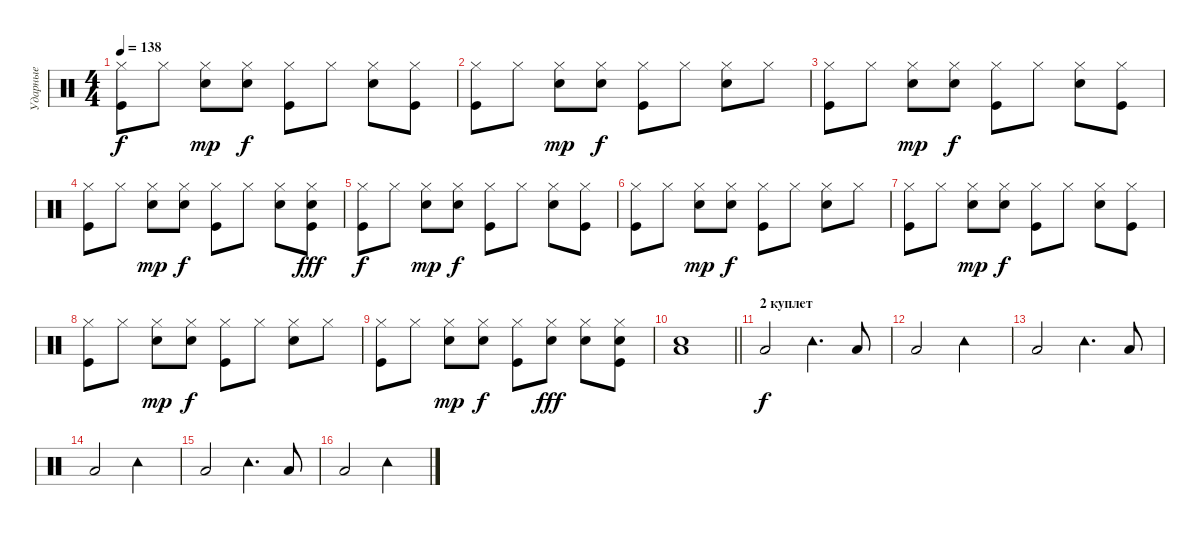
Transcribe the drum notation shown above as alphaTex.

\track ("Ударные" "Ударные") {instrument percussion}
\staff {score}
\articulation defaults
\ts (4 4)
\tempo 138
\clef neutral
\ks c
("Hi-Hat (closed)" "Kick (hit)").8{dy f} "Hi-Hat (closed)".8 ("Hi-Hat (closed)" "Snare (hit) 2").8{dy mp} ("Hi-Hat (closed)" "Snare (hit) 2").8{dy f} ("Hi-Hat (closed)" "Kick (hit)").8 "Hi-Hat (closed)".8 ("Hi-Hat (closed)" "Snare (hit) 2").8 ("Hi-Hat (closed)" "Kick (hit)").8 |
("Hi-Hat (closed)" "Kick (hit)").8 "Hi-Hat (closed)".8 ("Hi-Hat (closed)" "Snare (hit) 2").8{dy mp} ("Hi-Hat (closed)" "Snare (hit) 2").8{dy f} ("Hi-Hat (closed)" "Kick (hit)").8 "Hi-Hat (closed)".8 ("Hi-Hat (closed)" "Snare (hit) 2").8 "Hi-Hat (closed)".8 |
("Hi-Hat (closed)" "Kick (hit)").8 "Hi-Hat (closed)".8 ("Hi-Hat (closed)" "Snare (hit) 2").8{dy mp} ("Hi-Hat (closed)" "Snare (hit) 2").8{dy f} ("Hi-Hat (closed)" "Kick (hit)").8 "Hi-Hat (closed)".8 ("Hi-Hat (closed)" "Snare (hit) 2").8 ("Hi-Hat (closed)" "Kick (hit)").8 |
("Hi-Hat (closed)" "Kick (hit)").8 "Hi-Hat (closed)".8 ("Hi-Hat (closed)" "Snare (hit) 2").8{dy mp} ("Hi-Hat (closed)" "Snare (hit) 2").8{dy f} ("Hi-Hat (closed)" "Kick (hit)").8 "Hi-Hat (closed)".8 ("Hi-Hat (closed)" "Snare (hit) 2").8 ("Hi-Hat (closed)" "Kick (hit)" "Snare (hit) 2").8{dy fff} |
("Hi-Hat (closed)" "Kick (hit)").8{dy f} "Hi-Hat (closed)".8 ("Hi-Hat (closed)" "Snare (hit) 2").8{dy mp} ("Hi-Hat (closed)" "Snare (hit) 2").8{dy f} ("Hi-Hat (closed)" "Kick (hit)").8 "Hi-Hat (closed)".8 ("Hi-Hat (closed)" "Snare (hit) 2").8 ("Hi-Hat (closed)" "Kick (hit)").8 |
("Hi-Hat (closed)" "Kick (hit)").8 "Hi-Hat (closed)".8 ("Hi-Hat (closed)" "Snare (hit) 2").8{dy mp} ("Hi-Hat (closed)" "Snare (hit) 2").8{dy f} ("Hi-Hat (closed)" "Kick (hit)").8 "Hi-Hat (closed)".8 ("Hi-Hat (closed)" "Snare (hit) 2").8 "Hi-Hat (closed)".8 |
("Hi-Hat (closed)" "Kick (hit)").8 "Hi-Hat (closed)".8 ("Hi-Hat (closed)" "Snare (hit) 2").8{dy mp} ("Hi-Hat (closed)" "Snare (hit) 2").8{dy f} ("Hi-Hat (closed)" "Kick (hit)").8 "Hi-Hat (closed)".8 ("Hi-Hat (closed)" "Snare (hit) 2").8 ("Hi-Hat (closed)" "Kick (hit)").8 |
("Hi-Hat (closed)" "Kick (hit)").8 "Hi-Hat (closed)".8 ("Hi-Hat (closed)" "Snare (hit) 2").8{dy mp} ("Hi-Hat (closed)" "Snare (hit) 2").8{dy f} ("Hi-Hat (closed)" "Kick (hit)").8 "Hi-Hat (closed)".8 ("Hi-Hat (closed)" "Snare (hit) 2").8 "Hi-Hat (closed)".8 |
("Hi-Hat (closed)" "Kick (hit)").8 "Hi-Hat (closed)".8 ("Hi-Hat (closed)" "Snare (hit) 2").8{dy mp} ("Hi-Hat (closed)" "Snare (hit) 2").8{dy f} ("Hi-Hat (closed)" "Kick (hit)").8 ("Hi-Hat (closed)" "Snare (hit) 2").8{dy fff} ("Hi-Hat (closed)" "Snare (hit) 2").8 ("Hi-Hat (closed)" "Kick (hit)" "Snare (hit) 2").8 |
\barLineRight lightlight
("Low Floor Tom (hit)" "Snare (hit) 2").1 |
\section ("" "2 куплет")
"Low Floor Tom (hit)".2{dy f} "Tambourine (hit)".4{d} "Low Floor Tom (hit)".8 |
"Low Floor Tom (hit)".2 "Tambourine (hit)".2 |
"Low Floor Tom (hit)".2 "Tambourine (hit)".4{d} "Low Floor Tom (hit)".8 |
"Low Floor Tom (hit)".2 "Tambourine (hit)".2 |
"Low Floor Tom (hit)".2 "Tambourine (hit)".4{d} "Low Floor Tom (hit)".8 |
"Low Floor Tom (hit)".2 "Tambourine (hit)".2
